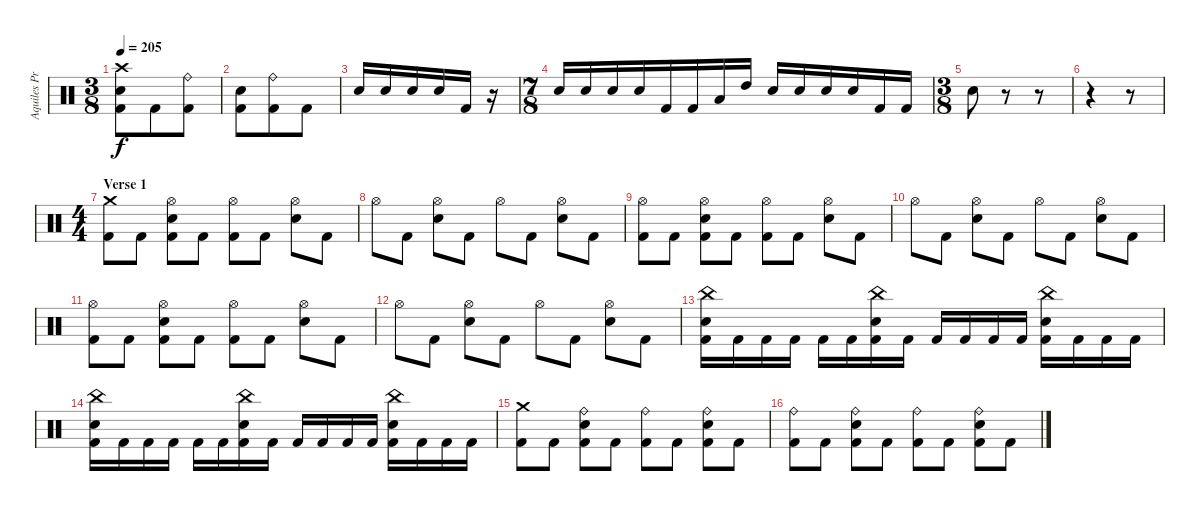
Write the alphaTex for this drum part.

\track ("Aquiles Priester" "Aquiles Pr") {instrument percussion}
\staff {score}
\articulation defaults
\ts (3 8)
\tempo 205
\clef neutral
\ks c
("Crash high (hit)" "Electric Snare (hit)" "Kick (hit) 2").8{dy f} "Kick (hit) 2".8 ("Ride (bell)" "Kick (hit) 2").8 |
("Electric Snare (hit)" "Kick (hit) 2").8 ("Ride (bell)" "Kick (hit) 2").8 "Kick (hit) 2".8 |
"Electric Snare (hit)".16 "Electric Snare (hit)".16 "Electric Snare (hit)".16 "Electric Snare (hit)".16 "Kick (hit) 2".16 r.16 |
\ts (7 8)
"Electric Snare (hit)".16 "Electric Snare (hit)".16 "Electric Snare (hit)".16 "Electric Snare (hit)".16 "Kick (hit) 2".16 "Kick (hit) 2".16 "Low Tom (hit)".16 "High Tom (hit)".16 "Electric Snare (hit)".16 "Electric Snare (hit)".16 "Electric Snare (hit)".16 "Electric Snare (hit)".16 "Kick (hit) 2".16 "Kick (hit) 2".16 |
\ts (3 8)
"Electric Snare (hit)".8 r.8 r.8 |
r.4 r.8 |
\ts (4 4)
\section ("" "Verse 1")
("Crash medium (hit)" "Kick (hit) 2").8 "Kick (hit) 2".8 ("Hi-Hat (open)" "Electric Snare (hit)" "Kick (hit) 2").8 "Kick (hit) 2".8 ("Hi-Hat (open)" "Kick (hit) 2").8 "Kick (hit) 2".8 ("Hi-Hat (open)" "Electric Snare (hit)").8 "Kick (hit) 2".8 |
"Hi-Hat (open)".8 "Kick (hit) 2".8 ("Hi-Hat (open)" "Electric Snare (hit)").8 "Kick (hit) 2".8 "Hi-Hat (open)".8 "Kick (hit) 2".8 ("Hi-Hat (open)" "Electric Snare (hit)").8 "Kick (hit) 2".8 |
("Hi-Hat (open)" "Kick (hit) 2").8 "Kick (hit) 2".8 ("Hi-Hat (open)" "Electric Snare (hit)" "Kick (hit) 2").8 "Kick (hit) 2".8 ("Hi-Hat (open)" "Kick (hit) 2").8 "Kick (hit) 2".8 ("Hi-Hat (open)" "Electric Snare (hit)").8 "Kick (hit) 2".8 |
"Hi-Hat (open)".8 "Kick (hit) 2".8 ("Hi-Hat (open)" "Electric Snare (hit)").8 "Kick (hit) 2".8 "Hi-Hat (open)".8 "Kick (hit) 2".8 ("Hi-Hat (open)" "Electric Snare (hit)").8 "Kick (hit) 2".8 |
("Hi-Hat (open)" "Kick (hit) 2").8 "Kick (hit) 2".8 ("Hi-Hat (open)" "Electric Snare (hit)" "Kick (hit) 2").8 "Kick (hit) 2".8 ("Hi-Hat (open)" "Kick (hit) 2").8 "Kick (hit) 2".8 ("Hi-Hat (open)" "Electric Snare (hit)").8 "Kick (hit) 2".8 |
"Hi-Hat (open)".8 "Kick (hit) 2".8 ("Hi-Hat (open)" "Electric Snare (hit)").8 "Kick (hit) 2".8 "Hi-Hat (open)".8 "Kick (hit) 2".8 ("Hi-Hat (open)" "Electric Snare (hit)").8 "Kick (hit) 2".8 |
("China (hit)" "Electric Snare (hit)" "Kick (hit) 2").16 "Kick (hit) 2".16 "Kick (hit) 2".16 "Kick (hit) 2".16 "Kick (hit) 2".16 "Kick (hit) 2".16 ("China (hit)" "Electric Snare (hit)" "Kick (hit) 2").16 "Kick (hit) 2".16 "Kick (hit) 2".16 "Kick (hit) 2".16 "Kick (hit) 2".16 "Kick (hit) 2".16 ("China (hit)" "Electric Snare (hit)" "Kick (hit) 2").16 "Kick (hit) 2".16 "Kick (hit) 2".16 "Kick (hit) 2".16 |
("China (hit)" "Electric Snare (hit)" "Kick (hit) 2").16 "Kick (hit) 2".16 "Kick (hit) 2".16 "Kick (hit) 2".16 "Kick (hit) 2".16 "Kick (hit) 2".16 ("China (hit)" "Electric Snare (hit)" "Kick (hit) 2").16 "Kick (hit) 2".16 "Kick (hit) 2".16 "Kick (hit) 2".16 "Kick (hit) 2".16 "Kick (hit) 2".16 ("China (hit)" "Electric Snare (hit)" "Kick (hit) 2").16 "Kick (hit) 2".16 "Kick (hit) 2".16 "Kick (hit) 2".16 |
("Crash medium (hit)" "Kick (hit) 2").8 "Kick (hit) 2".8 ("Ride (bell)" "Electric Snare (hit)" "Kick (hit) 2").8 "Kick (hit) 2".8 ("Ride (bell)" "Kick (hit) 2").8 "Kick (hit) 2".8 ("Ride (bell)" "Electric Snare (hit)" "Kick (hit) 2").8 "Kick (hit) 2".8 |
("Ride (bell)" "Kick (hit) 2").8 "Kick (hit) 2".8 ("Ride (bell)" "Electric Snare (hit)" "Kick (hit) 2").8 "Kick (hit) 2".8 ("Ride (bell)" "Kick (hit) 2").8 "Kick (hit) 2".8 ("Ride (bell)" "Electric Snare (hit)" "Kick (hit) 2").8 "Kick (hit) 2".8
